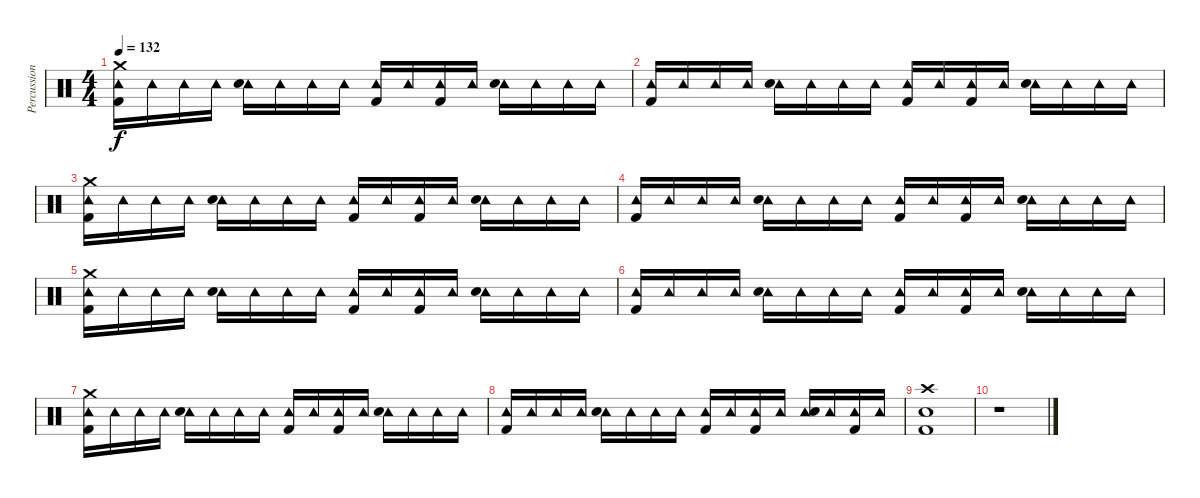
\track ("Percussion" "Percussion") {instrument percussion}
\staff {score}
\articulation defaults
\ts (4 4)
\tempo 132
\clef neutral
\ks c
("Crash medium (hit)" "Tambourine (hit)" "Kick (hit) 2").16{dy f} "Tambourine (hit)".16 "Tambourine (hit)".16 "Tambourine (hit)".16 ("Tambourine (hit)" "Snare (hit) 2").16 "Tambourine (hit)".16 "Tambourine (hit)".16 "Tambourine (hit)".16 ("Tambourine (hit)" "Kick (hit) 2").16 "Tambourine (hit)".16 ("Tambourine (hit)" "Kick (hit) 2").16 "Tambourine (hit)".16 ("Tambourine (hit)" "Snare (hit) 2").16 "Tambourine (hit)".16 "Tambourine (hit)".16 "Tambourine (hit)".16 |
("Tambourine (hit)" "Kick (hit) 2").16 "Tambourine (hit)".16 "Tambourine (hit)".16 "Tambourine (hit)".16 ("Tambourine (hit)" "Snare (hit) 2").16 "Tambourine (hit)".16 "Tambourine (hit)".16 "Tambourine (hit)".16 ("Tambourine (hit)" "Kick (hit) 2").16 "Tambourine (hit)".16 ("Tambourine (hit)" "Kick (hit) 2").16 "Tambourine (hit)".16 ("Tambourine (hit)" "Snare (hit) 2").16 "Tambourine (hit)".16 "Tambourine (hit)".16 "Tambourine (hit)".16 |
("Crash medium (hit)" "Tambourine (hit)" "Kick (hit) 2").16 "Tambourine (hit)".16 "Tambourine (hit)".16 "Tambourine (hit)".16 ("Tambourine (hit)" "Snare (hit) 2").16 "Tambourine (hit)".16 "Tambourine (hit)".16 "Tambourine (hit)".16 ("Tambourine (hit)" "Kick (hit) 2").16 "Tambourine (hit)".16 ("Tambourine (hit)" "Kick (hit) 2").16 "Tambourine (hit)".16 ("Tambourine (hit)" "Snare (hit) 2").16 "Tambourine (hit)".16 "Tambourine (hit)".16 "Tambourine (hit)".16 |
("Tambourine (hit)" "Kick (hit) 2").16 "Tambourine (hit)".16 "Tambourine (hit)".16 "Tambourine (hit)".16 ("Tambourine (hit)" "Snare (hit) 2").16 "Tambourine (hit)".16 "Tambourine (hit)".16 "Tambourine (hit)".16 ("Tambourine (hit)" "Kick (hit) 2").16 "Tambourine (hit)".16 ("Tambourine (hit)" "Kick (hit) 2").16 "Tambourine (hit)".16 ("Tambourine (hit)" "Snare (hit) 2").16 "Tambourine (hit)".16 "Tambourine (hit)".16 "Tambourine (hit)".16 |
("Crash medium (hit)" "Tambourine (hit)" "Kick (hit) 2").16 "Tambourine (hit)".16 "Tambourine (hit)".16 "Tambourine (hit)".16 ("Tambourine (hit)" "Snare (hit) 2").16 "Tambourine (hit)".16 "Tambourine (hit)".16 "Tambourine (hit)".16 ("Tambourine (hit)" "Kick (hit) 2").16 "Tambourine (hit)".16 ("Tambourine (hit)" "Kick (hit) 2").16 "Tambourine (hit)".16 ("Tambourine (hit)" "Snare (hit) 2").16 "Tambourine (hit)".16 "Tambourine (hit)".16 "Tambourine (hit)".16 |
("Tambourine (hit)" "Kick (hit) 2").16 "Tambourine (hit)".16 "Tambourine (hit)".16 "Tambourine (hit)".16 ("Tambourine (hit)" "Snare (hit) 2").16 "Tambourine (hit)".16 "Tambourine (hit)".16 "Tambourine (hit)".16 ("Tambourine (hit)" "Kick (hit) 2").16 "Tambourine (hit)".16 ("Tambourine (hit)" "Kick (hit) 2").16 "Tambourine (hit)".16 ("Tambourine (hit)" "Snare (hit) 2").16 "Tambourine (hit)".16 "Tambourine (hit)".16 "Tambourine (hit)".16 |
("Crash medium (hit)" "Tambourine (hit)" "Kick (hit) 2").16 "Tambourine (hit)".16 "Tambourine (hit)".16 "Tambourine (hit)".16 ("Tambourine (hit)" "Snare (hit) 2").16 "Tambourine (hit)".16 "Tambourine (hit)".16 "Tambourine (hit)".16 ("Tambourine (hit)" "Kick (hit) 2").16 "Tambourine (hit)".16 ("Tambourine (hit)" "Kick (hit) 2").16 "Tambourine (hit)".16 ("Tambourine (hit)" "Snare (hit) 2").16 "Tambourine (hit)".16 "Tambourine (hit)".16 "Tambourine (hit)".16 |
("Tambourine (hit)" "Kick (hit) 2").16 "Tambourine (hit)".16 "Tambourine (hit)".16 "Tambourine (hit)".16 ("Tambourine (hit)" "Snare (hit) 2").16 "Tambourine (hit)".16 "Tambourine (hit)".16 "Tambourine (hit)".16 ("Tambourine (hit)" "Kick (hit) 2").16 "Tambourine (hit)".16 ("Tambourine (hit)" "Kick (hit) 2").16 "Tambourine (hit)".16 ("Tambourine (hit)" "Snare (hit) 2").16 "Tambourine (hit)".16 ("Tambourine (hit)" "Kick (hit) 2").16 "Tambourine (hit)".16 |
("Crash high (hit)" "Electric Snare (hit)" "Kick (hit) 2").1 |
r.1
